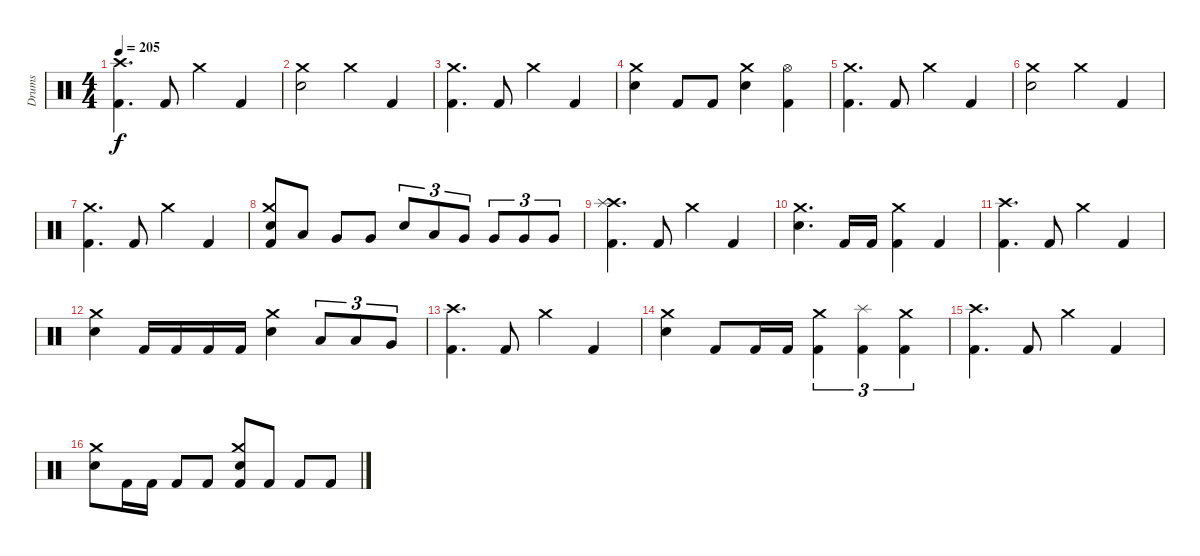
\track ("Drums" "Drums") {instrument percussion}
\staff {score}
\articulation defaults
\ts (4 4)
\tempo 205
\clef neutral
\ks c
("Crash high (hit)" "Kick (hit) 2").4{d dy f} "Kick (hit) 2".8 "Crash medium (hit)".4 "Kick (hit) 2".4 |
("Crash medium (hit)" "Electric Snare (hit)").2 "Crash medium (hit)".4 "Kick (hit) 2".4 |
("Crash medium (hit)" "Kick (hit) 2").4{d} "Kick (hit) 2".8 "Crash medium (hit)".4 "Kick (hit) 2".4 |
("Crash medium (hit)" "Electric Snare (hit)").4 "Kick (hit) 2".8 "Kick (hit) 2".8 ("Crash medium (hit)" "Electric Snare (hit)").4 ("Hi-Hat (open)" "Kick (hit) 2").4 |
("Crash medium (hit)" "Kick (hit) 2").4{d} "Kick (hit) 2".8 "Crash medium (hit)".4 "Kick (hit) 2".4 |
("Crash medium (hit)" "Electric Snare (hit)").2 "Crash medium (hit)".4 "Kick (hit) 2".4 |
("Crash medium (hit)" "Kick (hit) 2").4{d} "Kick (hit) 2".8 "Crash medium (hit)".4 "Kick (hit) 2".4 |
("Crash medium (hit)" "Electric Snare (hit)" "Kick (hit) 2").8 "Low Tom (hit)".8 "Very Low Tom (hit)".8 "Very Low Tom (hit)".8 "Electric Snare (hit)".8{tu (3 2)} "Low Tom (hit)".8{tu (3 2)} "Very Low Tom (hit)".8{tu (3 2)} "Very Low Tom (hit)".8{tu (3 2)} "Very Low Tom (hit)".8{tu (3 2)} "Very Low Tom (hit)".8{tu (3 2)} |
("Crash high (hit)" "Splash (hit)" "Kick (hit) 2").4{d} "Kick (hit) 2".8 "Crash medium (hit)".4 "Kick (hit) 2".4 |
("Crash medium (hit)" "Electric Snare (hit)").4{d} "Kick (hit) 2".16 "Kick (hit) 2".16 ("Crash medium (hit)" "Kick (hit) 2").4 "Kick (hit) 2".4 |
("Crash high (hit)" "Kick (hit) 2").4{d} "Kick (hit) 2".8 "Crash medium (hit)".4 "Kick (hit) 2".4 |
("Crash medium (hit)" "Electric Snare (hit)").4 "Kick (hit) 2".16 "Kick (hit) 2".16 "Kick (hit) 2".16 "Kick (hit) 2".16 ("Crash medium (hit)" "Electric Snare (hit)").4 "Low Tom (hit)".8{tu (3 2)} "Low Tom (hit)".8{tu (3 2)} "Very Low Tom (hit)".8{tu (3 2)} |
("Crash high (hit)" "Kick (hit) 2").4{d} "Kick (hit) 2".8 "Crash medium (hit)".4 "Kick (hit) 2".4 |
("Crash medium (hit)" "Electric Snare (hit)").4 "Kick (hit) 2".8 "Kick (hit) 2".16 "Kick (hit) 2".16 ("Crash medium (hit)" "Kick (hit) 2").4{tu (3 2)} ("Splash (hit)" "Kick (hit) 2").4{tu (3 2)} ("Crash medium (hit)" "Kick (hit) 2").4{tu (3 2)} |
("Crash high (hit)" "Kick (hit) 2").4{d} "Kick (hit) 2".8 "Crash medium (hit)".4 "Kick (hit) 2".4 |
("Crash medium (hit)" "Electric Snare (hit)").8 "Kick (hit) 2".16 "Kick (hit) 2".16 "Kick (hit) 2".8 "Kick (hit) 2".8 ("Crash medium (hit)" "Electric Snare (hit)" "Kick (hit) 2").8 "Kick (hit) 2".8 "Kick (hit) 2".8 "Kick (hit) 2".8
